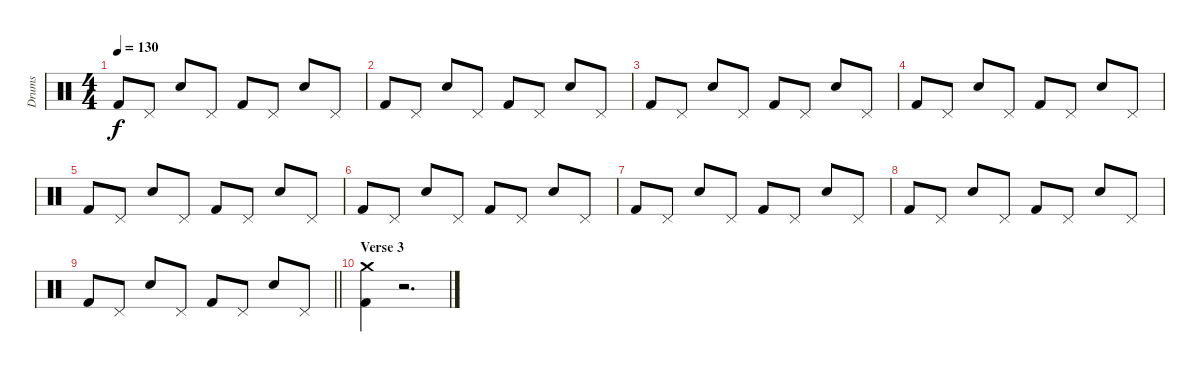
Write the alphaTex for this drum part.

\track ("Drums" "Drums") {instrument percussion}
\staff {score}
\articulation defaults
\ts (4 4)
\tempo 130
\clef neutral
\ks c "Kick (hit) 2".8{dy f} "Pedal Hi-Hat (hit)".8 "Electric Snare (hit)".8 "Pedal Hi-Hat (hit)".8 "Kick (hit) 2".8 "Pedal Hi-Hat (hit)".8 "Electric Snare (hit)".8 "Pedal Hi-Hat (hit)".8
|
"Kick (hit) 2".8 "Pedal Hi-Hat (hit)".8 "Electric Snare (hit)".8 "Pedal Hi-Hat (hit)".8 "Kick (hit) 2".8 "Pedal Hi-Hat (hit)".8 "Electric Snare (hit)".8 "Pedal Hi-Hat (hit)".8 |
"Kick (hit) 2".8 "Pedal Hi-Hat (hit)".8 "Electric Snare (hit)".8 "Pedal Hi-Hat (hit)".8 "Kick (hit) 2".8 "Pedal Hi-Hat (hit)".8 "Electric Snare (hit)".8 "Pedal Hi-Hat (hit)".8 |
"Kick (hit) 2".8 "Pedal Hi-Hat (hit)".8 "Electric Snare (hit)".8 "Pedal Hi-Hat (hit)".8 "Kick (hit) 2".8 "Pedal Hi-Hat (hit)".8 "Electric Snare (hit)".8 "Pedal Hi-Hat (hit)".8 |
"Kick (hit) 2".8 "Pedal Hi-Hat (hit)".8 "Electric Snare (hit)".8 "Pedal Hi-Hat (hit)".8 "Kick (hit) 2".8 "Pedal Hi-Hat (hit)".8 "Electric Snare (hit)".8 "Pedal Hi-Hat (hit)".8 |
"Kick (hit) 2".8 "Pedal Hi-Hat (hit)".8 "Electric Snare (hit)".8 "Pedal Hi-Hat (hit)".8 "Kick (hit) 2".8 "Pedal Hi-Hat (hit)".8 "Electric Snare (hit)".8 "Pedal Hi-Hat (hit)".8 |
"Kick (hit) 2".8 "Pedal Hi-Hat (hit)".8 "Electric Snare (hit)".8 "Pedal Hi-Hat (hit)".8 "Kick (hit) 2".8 "Pedal Hi-Hat (hit)".8 "Electric Snare (hit)".8 "Pedal Hi-Hat (hit)".8 |
"Kick (hit) 2".8 "Pedal Hi-Hat (hit)".8 "Electric Snare (hit)".8 "Pedal Hi-Hat (hit)".8 "Kick (hit) 2".8 "Pedal Hi-Hat (hit)".8 "Electric Snare (hit)".8 "Pedal Hi-Hat (hit)".8 |
\barLineRight lightlight "Kick (hit) 2".8 "Pedal Hi-Hat (hit)".8 "Electric Snare (hit)".8 "Pedal Hi-Hat (hit)".8 "Kick (hit) 2".8 "Pedal Hi-Hat (hit)".8 "Electric Snare (hit)".8 "Pedal Hi-Hat (hit)".8
|
\section ("" "Verse 3")
("Kick (hit) 2" "Crash medium (hit)").4 r.2{d}
